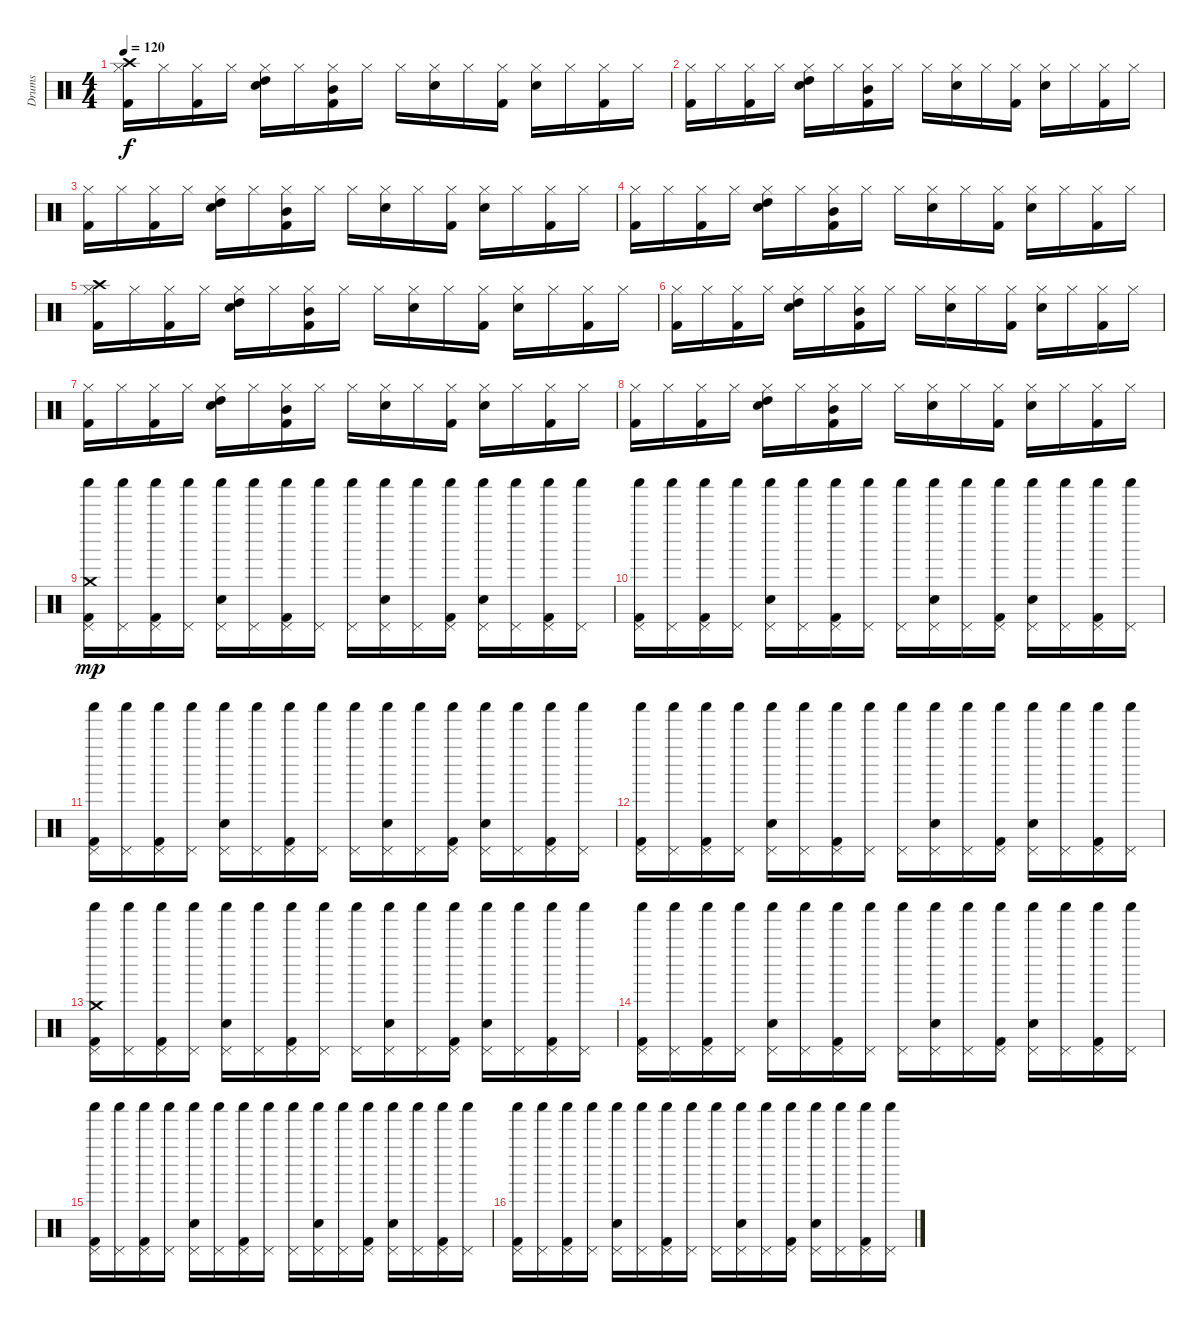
\track ("Drums" "Drums") {instrument percussion}
\staff {score}
\articulation defaults
\ts (4 4)
\tempo 120
\clef neutral
\ks c
("Hi-Hat (closed)" "Crash high (hit)" "Kick (hit) 2").16{dy f} "Hi-Hat (closed)".16 ("Hi-Hat (closed)" "Kick (hit) 2").16 "Hi-Hat (closed)".16 ("Hi-Hat (closed)" "High Tom (hit)" "Electric Snare (hit)").16 "Hi-Hat (closed)".16 ("Hi-Hat (closed)" "Mid Tom (hit)" "Kick (hit) 2").16 "Hi-Hat (closed)".16 "Hi-Hat (closed)".16 ("Hi-Hat (closed)" "Electric Snare (hit)").16 "Hi-Hat (closed)".16 ("Hi-Hat (closed)" "Kick (hit) 2").16 ("Hi-Hat (closed)" "Electric Snare (hit)").16 "Hi-Hat (closed)".16 ("Hi-Hat (closed)" "Kick (hit) 2").16 "Hi-Hat (closed)".16 |
("Hi-Hat (closed)" "Kick (hit) 2").16 "Hi-Hat (closed)".16 ("Hi-Hat (closed)" "Kick (hit) 2").16 "Hi-Hat (closed)".16 ("Hi-Hat (closed)" "High Tom (hit)" "Electric Snare (hit)").16 "Hi-Hat (closed)".16 ("Hi-Hat (closed)" "Mid Tom (hit)" "Kick (hit) 2").16 "Hi-Hat (closed)".16 "Hi-Hat (closed)".16 ("Hi-Hat (closed)" "Electric Snare (hit)").16 "Hi-Hat (closed)".16 ("Hi-Hat (closed)" "Kick (hit) 2").16 ("Hi-Hat (closed)" "Electric Snare (hit)").16 "Hi-Hat (closed)".16 ("Hi-Hat (closed)" "Kick (hit) 2").16 "Hi-Hat (closed)".16 |
("Hi-Hat (closed)" "Kick (hit) 2").16 "Hi-Hat (closed)".16 ("Hi-Hat (closed)" "Kick (hit) 2").16 "Hi-Hat (closed)".16 ("Hi-Hat (closed)" "High Tom (hit)" "Electric Snare (hit)").16 "Hi-Hat (closed)".16 ("Hi-Hat (closed)" "Mid Tom (hit)" "Kick (hit) 2").16 "Hi-Hat (closed)".16 "Hi-Hat (closed)".16 ("Hi-Hat (closed)" "Electric Snare (hit)").16 "Hi-Hat (closed)".16 ("Hi-Hat (closed)" "Kick (hit) 2").16 ("Hi-Hat (closed)" "Electric Snare (hit)").16 "Hi-Hat (closed)".16 ("Hi-Hat (closed)" "Kick (hit) 2").16 "Hi-Hat (closed)".16 |
("Hi-Hat (closed)" "Kick (hit) 2").16 "Hi-Hat (closed)".16 ("Hi-Hat (closed)" "Kick (hit) 2").16 "Hi-Hat (closed)".16 ("Hi-Hat (closed)" "High Tom (hit)" "Electric Snare (hit)").16 "Hi-Hat (closed)".16 ("Hi-Hat (closed)" "Mid Tom (hit)" "Kick (hit) 2").16 "Hi-Hat (closed)".16 "Hi-Hat (closed)".16 ("Hi-Hat (closed)" "Electric Snare (hit)").16 "Hi-Hat (closed)".16 ("Hi-Hat (closed)" "Kick (hit) 2").16 ("Hi-Hat (closed)" "Electric Snare (hit)").16 "Hi-Hat (closed)".16 ("Hi-Hat (closed)" "Kick (hit) 2").16 "Hi-Hat (closed)".16 |
("Hi-Hat (closed)" "Crash high (hit)" "Kick (hit) 2").16 "Hi-Hat (closed)".16 ("Hi-Hat (closed)" "Kick (hit) 2").16 "Hi-Hat (closed)".16 ("Hi-Hat (closed)" "High Tom (hit)" "Electric Snare (hit)").16 "Hi-Hat (closed)".16 ("Hi-Hat (closed)" "Mid Tom (hit)" "Kick (hit) 2").16 "Hi-Hat (closed)".16 "Hi-Hat (closed)".16 ("Hi-Hat (closed)" "Electric Snare (hit)").16 "Hi-Hat (closed)".16 ("Hi-Hat (closed)" "Kick (hit) 2").16 ("Hi-Hat (closed)" "Electric Snare (hit)").16 "Hi-Hat (closed)".16 ("Hi-Hat (closed)" "Kick (hit) 2").16 "Hi-Hat (closed)".16 |
("Hi-Hat (closed)" "Kick (hit) 2").16 "Hi-Hat (closed)".16 ("Hi-Hat (closed)" "Kick (hit) 2").16 "Hi-Hat (closed)".16 ("Hi-Hat (closed)" "High Tom (hit)" "Electric Snare (hit)").16 "Hi-Hat (closed)".16 ("Hi-Hat (closed)" "Mid Tom (hit)" "Kick (hit) 2").16 "Hi-Hat (closed)".16 "Hi-Hat (closed)".16 ("Hi-Hat (closed)" "Electric Snare (hit)").16 "Hi-Hat (closed)".16 ("Hi-Hat (closed)" "Kick (hit) 2").16 ("Hi-Hat (closed)" "Electric Snare (hit)").16 "Hi-Hat (closed)".16 ("Hi-Hat (closed)" "Kick (hit) 2").16 "Hi-Hat (closed)".16 |
("Hi-Hat (closed)" "Kick (hit) 2").16 "Hi-Hat (closed)".16 ("Hi-Hat (closed)" "Kick (hit) 2").16 "Hi-Hat (closed)".16 ("Hi-Hat (closed)" "High Tom (hit)" "Electric Snare (hit)").16 "Hi-Hat (closed)".16 ("Hi-Hat (closed)" "Mid Tom (hit)" "Kick (hit) 2").16 "Hi-Hat (closed)".16 "Hi-Hat (closed)".16 ("Hi-Hat (closed)" "Electric Snare (hit)").16 "Hi-Hat (closed)".16 ("Hi-Hat (closed)" "Kick (hit) 2").16 ("Hi-Hat (closed)" "Electric Snare (hit)").16 "Hi-Hat (closed)".16 ("Hi-Hat (closed)" "Kick (hit) 2").16 "Hi-Hat (closed)".16 |
("Hi-Hat (closed)" "Kick (hit) 2").16 "Hi-Hat (closed)".16 ("Hi-Hat (closed)" "Kick (hit) 2").16 "Hi-Hat (closed)".16 ("Hi-Hat (closed)" "High Tom (hit)" "Electric Snare (hit)").16 "Hi-Hat (closed)".16 ("Hi-Hat (closed)" "Mid Tom (hit)" "Kick (hit) 2").16 "Hi-Hat (closed)".16 "Hi-Hat (closed)".16 ("Hi-Hat (closed)" "Electric Snare (hit)").16 "Hi-Hat (closed)".16 ("Hi-Hat (closed)" "Kick (hit) 2").16 ("Hi-Hat (closed)" "Electric Snare (hit)").16 "Hi-Hat (closed)".16 ("Hi-Hat (closed)" "Kick (hit) 2").16 "Hi-Hat (closed)".16 |
("Shaker (hit)" "Pedal Hi-Hat (hit)" "Crash medium (hit)" "Kick (hit) 2").16{dy mp} ("Shaker (hit)" "Pedal Hi-Hat (hit)").16 ("Shaker (hit)" "Pedal Hi-Hat (hit)" "Kick (hit) 2").16 ("Shaker (hit)" "Pedal Hi-Hat (hit)").16 ("Shaker (hit)" "Pedal Hi-Hat (hit)" "Electric Snare (hit)").16 ("Shaker (hit)" "Pedal Hi-Hat (hit)").16 ("Shaker (hit)" "Pedal Hi-Hat (hit)" "Kick (hit) 2").16 ("Shaker (hit)" "Pedal Hi-Hat (hit)").16 ("Shaker (hit)" "Pedal Hi-Hat (hit)").16 ("Shaker (hit)" "Pedal Hi-Hat (hit)" "Electric Snare (hit)").16 ("Shaker (hit)" "Pedal Hi-Hat (hit)").16 ("Shaker (hit)" "Pedal Hi-Hat (hit)" "Kick (hit) 2").16 ("Shaker (hit)" "Pedal Hi-Hat (hit)" "Electric Snare (hit)").16 ("Shaker (hit)" "Pedal Hi-Hat (hit)").16 ("Shaker (hit)" "Pedal Hi-Hat (hit)" "Kick (hit) 2").16 ("Shaker (hit)" "Pedal Hi-Hat (hit)").16 |
("Shaker (hit)" "Pedal Hi-Hat (hit)" "Kick (hit) 2").16 ("Shaker (hit)" "Pedal Hi-Hat (hit)").16 ("Shaker (hit)" "Pedal Hi-Hat (hit)" "Kick (hit) 2").16 ("Shaker (hit)" "Pedal Hi-Hat (hit)").16 ("Shaker (hit)" "Pedal Hi-Hat (hit)" "Electric Snare (hit)").16 ("Shaker (hit)" "Pedal Hi-Hat (hit)").16 ("Shaker (hit)" "Pedal Hi-Hat (hit)" "Kick (hit) 2").16 ("Shaker (hit)" "Pedal Hi-Hat (hit)").16 ("Shaker (hit)" "Pedal Hi-Hat (hit)").16 ("Shaker (hit)" "Pedal Hi-Hat (hit)" "Electric Snare (hit)").16 ("Shaker (hit)" "Pedal Hi-Hat (hit)").16 ("Shaker (hit)" "Pedal Hi-Hat (hit)" "Kick (hit) 2").16 ("Shaker (hit)" "Pedal Hi-Hat (hit)" "Electric Snare (hit)").16 ("Shaker (hit)" "Pedal Hi-Hat (hit)").16 ("Shaker (hit)" "Pedal Hi-Hat (hit)" "Kick (hit) 2").16 ("Shaker (hit)" "Pedal Hi-Hat (hit)").16 |
("Shaker (hit)" "Pedal Hi-Hat (hit)" "Kick (hit) 2").16 ("Shaker (hit)" "Pedal Hi-Hat (hit)").16 ("Shaker (hit)" "Pedal Hi-Hat (hit)" "Kick (hit) 2").16 ("Shaker (hit)" "Pedal Hi-Hat (hit)").16 ("Shaker (hit)" "Pedal Hi-Hat (hit)" "Electric Snare (hit)").16 ("Shaker (hit)" "Pedal Hi-Hat (hit)").16 ("Shaker (hit)" "Pedal Hi-Hat (hit)" "Kick (hit) 2").16 ("Shaker (hit)" "Pedal Hi-Hat (hit)").16 ("Shaker (hit)" "Pedal Hi-Hat (hit)").16 ("Shaker (hit)" "Pedal Hi-Hat (hit)" "Electric Snare (hit)").16 ("Shaker (hit)" "Pedal Hi-Hat (hit)").16 ("Shaker (hit)" "Pedal Hi-Hat (hit)" "Kick (hit) 2").16 ("Shaker (hit)" "Pedal Hi-Hat (hit)" "Electric Snare (hit)").16 ("Shaker (hit)" "Pedal Hi-Hat (hit)").16 ("Shaker (hit)" "Pedal Hi-Hat (hit)" "Kick (hit) 2").16 ("Shaker (hit)" "Pedal Hi-Hat (hit)").16 |
("Shaker (hit)" "Pedal Hi-Hat (hit)" "Kick (hit) 2").16 ("Shaker (hit)" "Pedal Hi-Hat (hit)").16 ("Shaker (hit)" "Pedal Hi-Hat (hit)" "Kick (hit) 2").16 ("Shaker (hit)" "Pedal Hi-Hat (hit)").16 ("Shaker (hit)" "Pedal Hi-Hat (hit)" "Electric Snare (hit)").16 ("Shaker (hit)" "Pedal Hi-Hat (hit)").16 ("Shaker (hit)" "Pedal Hi-Hat (hit)" "Kick (hit) 2").16 ("Shaker (hit)" "Pedal Hi-Hat (hit)").16 ("Shaker (hit)" "Pedal Hi-Hat (hit)").16 ("Shaker (hit)" "Pedal Hi-Hat (hit)" "Electric Snare (hit)").16 ("Shaker (hit)" "Pedal Hi-Hat (hit)").16 ("Shaker (hit)" "Pedal Hi-Hat (hit)" "Kick (hit) 2").16 ("Shaker (hit)" "Pedal Hi-Hat (hit)" "Electric Snare (hit)").16 ("Shaker (hit)" "Pedal Hi-Hat (hit)").16 ("Shaker (hit)" "Pedal Hi-Hat (hit)" "Kick (hit) 2").16 ("Shaker (hit)" "Pedal Hi-Hat (hit)").16 |
("Shaker (hit)" "Pedal Hi-Hat (hit)" "Crash medium (hit)" "Kick (hit) 2").16 ("Shaker (hit)" "Pedal Hi-Hat (hit)").16 ("Shaker (hit)" "Pedal Hi-Hat (hit)" "Kick (hit) 2").16 ("Shaker (hit)" "Pedal Hi-Hat (hit)").16 ("Shaker (hit)" "Pedal Hi-Hat (hit)" "Electric Snare (hit)").16 ("Shaker (hit)" "Pedal Hi-Hat (hit)").16 ("Shaker (hit)" "Pedal Hi-Hat (hit)" "Kick (hit) 2").16 ("Shaker (hit)" "Pedal Hi-Hat (hit)").16 ("Shaker (hit)" "Pedal Hi-Hat (hit)").16 ("Shaker (hit)" "Pedal Hi-Hat (hit)" "Electric Snare (hit)").16 ("Shaker (hit)" "Pedal Hi-Hat (hit)").16 ("Shaker (hit)" "Pedal Hi-Hat (hit)" "Kick (hit) 2").16 ("Shaker (hit)" "Pedal Hi-Hat (hit)" "Electric Snare (hit)").16 ("Shaker (hit)" "Pedal Hi-Hat (hit)").16 ("Shaker (hit)" "Pedal Hi-Hat (hit)" "Kick (hit) 2").16 ("Shaker (hit)" "Pedal Hi-Hat (hit)").16 |
("Shaker (hit)" "Pedal Hi-Hat (hit)" "Kick (hit) 2").16 ("Shaker (hit)" "Pedal Hi-Hat (hit)").16 ("Shaker (hit)" "Pedal Hi-Hat (hit)" "Kick (hit) 2").16 ("Shaker (hit)" "Pedal Hi-Hat (hit)").16 ("Shaker (hit)" "Pedal Hi-Hat (hit)" "Electric Snare (hit)").16 ("Shaker (hit)" "Pedal Hi-Hat (hit)").16 ("Shaker (hit)" "Pedal Hi-Hat (hit)" "Kick (hit) 2").16 ("Shaker (hit)" "Pedal Hi-Hat (hit)").16 ("Shaker (hit)" "Pedal Hi-Hat (hit)").16 ("Shaker (hit)" "Pedal Hi-Hat (hit)" "Electric Snare (hit)").16 ("Shaker (hit)" "Pedal Hi-Hat (hit)").16 ("Shaker (hit)" "Pedal Hi-Hat (hit)" "Kick (hit) 2").16 ("Shaker (hit)" "Pedal Hi-Hat (hit)" "Electric Snare (hit)").16 ("Shaker (hit)" "Pedal Hi-Hat (hit)").16 ("Shaker (hit)" "Pedal Hi-Hat (hit)" "Kick (hit) 2").16 ("Shaker (hit)" "Pedal Hi-Hat (hit)").16 |
("Shaker (hit)" "Pedal Hi-Hat (hit)" "Kick (hit) 2").16 ("Shaker (hit)" "Pedal Hi-Hat (hit)").16 ("Shaker (hit)" "Pedal Hi-Hat (hit)" "Kick (hit) 2").16 ("Shaker (hit)" "Pedal Hi-Hat (hit)").16 ("Shaker (hit)" "Pedal Hi-Hat (hit)" "Electric Snare (hit)").16 ("Shaker (hit)" "Pedal Hi-Hat (hit)").16 ("Shaker (hit)" "Pedal Hi-Hat (hit)" "Kick (hit) 2").16 ("Shaker (hit)" "Pedal Hi-Hat (hit)").16 ("Shaker (hit)" "Pedal Hi-Hat (hit)").16 ("Shaker (hit)" "Pedal Hi-Hat (hit)" "Electric Snare (hit)").16 ("Shaker (hit)" "Pedal Hi-Hat (hit)").16 ("Shaker (hit)" "Pedal Hi-Hat (hit)" "Kick (hit) 2").16 ("Shaker (hit)" "Pedal Hi-Hat (hit)" "Electric Snare (hit)").16 ("Shaker (hit)" "Pedal Hi-Hat (hit)").16 ("Shaker (hit)" "Pedal Hi-Hat (hit)" "Kick (hit) 2").16 ("Shaker (hit)" "Pedal Hi-Hat (hit)").16 |
("Shaker (hit)" "Pedal Hi-Hat (hit)" "Kick (hit) 2").16 ("Shaker (hit)" "Pedal Hi-Hat (hit)").16 ("Shaker (hit)" "Pedal Hi-Hat (hit)" "Kick (hit) 2").16 ("Shaker (hit)" "Pedal Hi-Hat (hit)").16 ("Shaker (hit)" "Pedal Hi-Hat (hit)" "Electric Snare (hit)").16 ("Shaker (hit)" "Pedal Hi-Hat (hit)").16 ("Shaker (hit)" "Pedal Hi-Hat (hit)" "Kick (hit) 2").16 ("Shaker (hit)" "Pedal Hi-Hat (hit)").16 ("Shaker (hit)" "Pedal Hi-Hat (hit)").16 ("Shaker (hit)" "Pedal Hi-Hat (hit)" "Electric Snare (hit)").16 ("Shaker (hit)" "Pedal Hi-Hat (hit)").16 ("Shaker (hit)" "Pedal Hi-Hat (hit)" "Kick (hit) 2").16 ("Shaker (hit)" "Pedal Hi-Hat (hit)" "Electric Snare (hit)").16 ("Shaker (hit)" "Pedal Hi-Hat (hit)").16 ("Shaker (hit)" "Pedal Hi-Hat (hit)" "Kick (hit) 2").16 ("Shaker (hit)" "Pedal Hi-Hat (hit)").16
